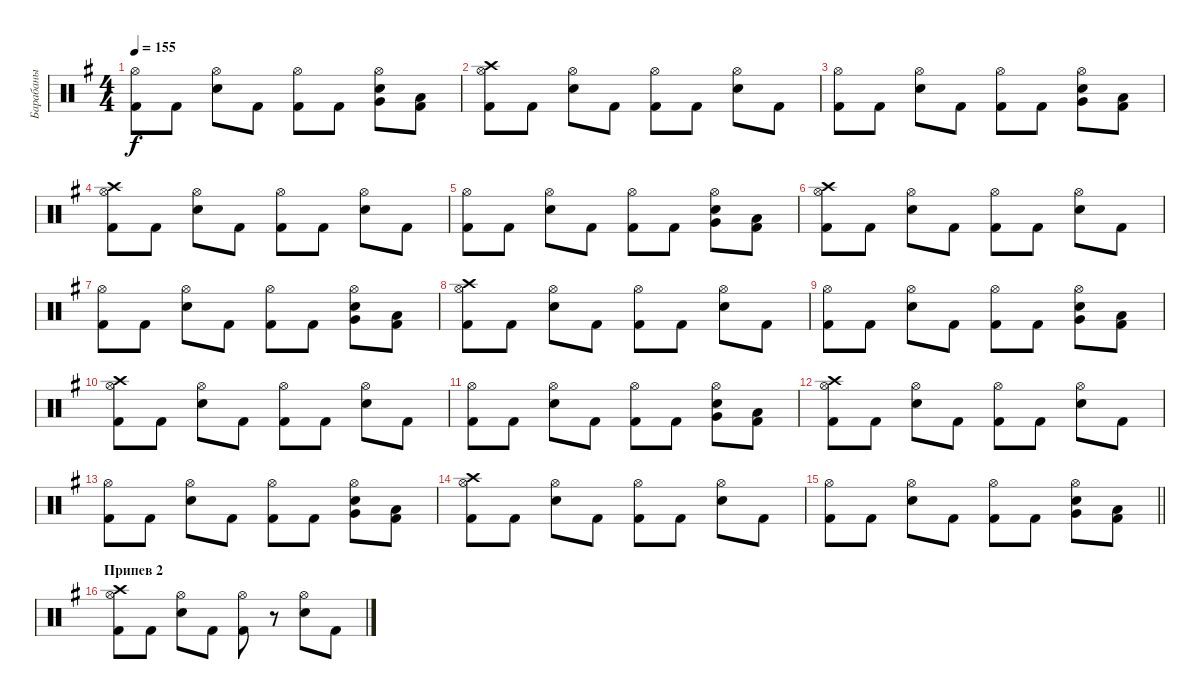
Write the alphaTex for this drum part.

\track ("Барабаны" "Барабаны") {instrument percussion}
\staff {score}
\articulation defaults
\ts (4 4)
\tempo 155
\clef neutral
\ks eminor
("Kick (hit) 2" "Hi-Hat (open)").8{dy f} "Kick (hit) 2".8 ("Electric Snare (hit)" "Hi-Hat (open)").8 "Kick (hit) 2".8 ("Kick (hit) 2" "Hi-Hat (open)").8 "Kick (hit) 2".8 ("Electric Snare (hit)" "Hi-Hat (open)" "Very Low Tom (hit)").8 ("Kick (hit) 2" "Low Floor Tom (hit)").8 |
("Kick (hit) 2" "Hi-Hat (open)" "Crash high (hit)").8 "Kick (hit) 2".8 ("Electric Snare (hit)" "Hi-Hat (open)").8 "Kick (hit) 2".8 ("Kick (hit) 2" "Hi-Hat (open)").8 "Kick (hit) 2".8 ("Electric Snare (hit)" "Hi-Hat (open)").8 "Kick (hit) 2".8 |
("Kick (hit) 2" "Hi-Hat (open)").8 "Kick (hit) 2".8 ("Electric Snare (hit)" "Hi-Hat (open)").8 "Kick (hit) 2".8 ("Kick (hit) 2" "Hi-Hat (open)").8 "Kick (hit) 2".8 ("Electric Snare (hit)" "Hi-Hat (open)" "Very Low Tom (hit)").8 ("Kick (hit) 2" "Low Floor Tom (hit)").8 |
("Kick (hit) 2" "Hi-Hat (open)" "Crash high (hit)").8 "Kick (hit) 2".8 ("Electric Snare (hit)" "Hi-Hat (open)").8 "Kick (hit) 2".8 ("Kick (hit) 2" "Hi-Hat (open)").8 "Kick (hit) 2".8 ("Electric Snare (hit)" "Hi-Hat (open)").8 "Kick (hit) 2".8 |
("Kick (hit) 2" "Hi-Hat (open)").8 "Kick (hit) 2".8 ("Electric Snare (hit)" "Hi-Hat (open)").8 "Kick (hit) 2".8 ("Kick (hit) 2" "Hi-Hat (open)").8 "Kick (hit) 2".8 ("Electric Snare (hit)" "Hi-Hat (open)" "Very Low Tom (hit)").8 ("Kick (hit) 2" "Low Floor Tom (hit)").8 |
("Kick (hit) 2" "Hi-Hat (open)" "Crash high (hit)").8 "Kick (hit) 2".8 ("Electric Snare (hit)" "Hi-Hat (open)").8 "Kick (hit) 2".8 ("Kick (hit) 2" "Hi-Hat (open)").8 "Kick (hit) 2".8 ("Electric Snare (hit)" "Hi-Hat (open)").8 "Kick (hit) 2".8 |
("Kick (hit) 2" "Hi-Hat (open)").8 "Kick (hit) 2".8 ("Electric Snare (hit)" "Hi-Hat (open)").8 "Kick (hit) 2".8 ("Kick (hit) 2" "Hi-Hat (open)").8 "Kick (hit) 2".8 ("Electric Snare (hit)" "Hi-Hat (open)" "Very Low Tom (hit)").8 ("Kick (hit) 2" "Low Floor Tom (hit)").8 |
("Kick (hit) 2" "Hi-Hat (open)" "Crash high (hit)").8 "Kick (hit) 2".8 ("Electric Snare (hit)" "Hi-Hat (open)").8 "Kick (hit) 2".8 ("Kick (hit) 2" "Hi-Hat (open)").8 "Kick (hit) 2".8 ("Electric Snare (hit)" "Hi-Hat (open)").8 "Kick (hit) 2".8 |
("Kick (hit) 2" "Hi-Hat (open)").8 "Kick (hit) 2".8 ("Electric Snare (hit)" "Hi-Hat (open)").8 "Kick (hit) 2".8 ("Kick (hit) 2" "Hi-Hat (open)").8 "Kick (hit) 2".8 ("Electric Snare (hit)" "Hi-Hat (open)" "Very Low Tom (hit)").8 ("Kick (hit) 2" "Low Floor Tom (hit)").8 |
("Kick (hit) 2" "Hi-Hat (open)" "Crash high (hit)").8 "Kick (hit) 2".8 ("Electric Snare (hit)" "Hi-Hat (open)").8 "Kick (hit) 2".8 ("Kick (hit) 2" "Hi-Hat (open)").8 "Kick (hit) 2".8 ("Electric Snare (hit)" "Hi-Hat (open)").8 "Kick (hit) 2".8 |
("Kick (hit) 2" "Hi-Hat (open)").8 "Kick (hit) 2".8 ("Electric Snare (hit)" "Hi-Hat (open)").8 "Kick (hit) 2".8 ("Kick (hit) 2" "Hi-Hat (open)").8 "Kick (hit) 2".8 ("Electric Snare (hit)" "Hi-Hat (open)" "Very Low Tom (hit)").8 ("Kick (hit) 2" "Low Floor Tom (hit)").8 |
("Kick (hit) 2" "Hi-Hat (open)" "Crash high (hit)").8 "Kick (hit) 2".8 ("Electric Snare (hit)" "Hi-Hat (open)").8 "Kick (hit) 2".8 ("Kick (hit) 2" "Hi-Hat (open)").8 "Kick (hit) 2".8 ("Electric Snare (hit)" "Hi-Hat (open)").8 "Kick (hit) 2".8 |
("Kick (hit) 2" "Hi-Hat (open)").8 "Kick (hit) 2".8 ("Electric Snare (hit)" "Hi-Hat (open)").8 "Kick (hit) 2".8 ("Kick (hit) 2" "Hi-Hat (open)").8 "Kick (hit) 2".8 ("Electric Snare (hit)" "Hi-Hat (open)" "Very Low Tom (hit)").8 ("Kick (hit) 2" "Low Floor Tom (hit)").8 |
("Kick (hit) 2" "Hi-Hat (open)" "Crash high (hit)").8 "Kick (hit) 2".8 ("Electric Snare (hit)" "Hi-Hat (open)").8 "Kick (hit) 2".8 ("Kick (hit) 2" "Hi-Hat (open)").8 "Kick (hit) 2".8 ("Electric Snare (hit)" "Hi-Hat (open)").8 "Kick (hit) 2".8 |
\barLineRight lightlight
("Kick (hit) 2" "Hi-Hat (open)").8 "Kick (hit) 2".8 ("Electric Snare (hit)" "Hi-Hat (open)").8 "Kick (hit) 2".8 ("Kick (hit) 2" "Hi-Hat (open)").8 "Kick (hit) 2".8 ("Electric Snare (hit)" "Hi-Hat (open)" "Very Low Tom (hit)").8 ("Kick (hit) 2" "Low Floor Tom (hit)").8 |
\section ("" "Припев 2")
("Kick (hit) 2" "Hi-Hat (open)" "Crash high (hit)").8 "Kick (hit) 2".8 ("Electric Snare (hit)" "Hi-Hat (open)").8 "Kick (hit) 2".8 ("Kick (hit) 2" "Hi-Hat (open)").8 r.8 ("Electric Snare (hit)" "Hi-Hat (open)").8 "Kick (hit) 2".8
